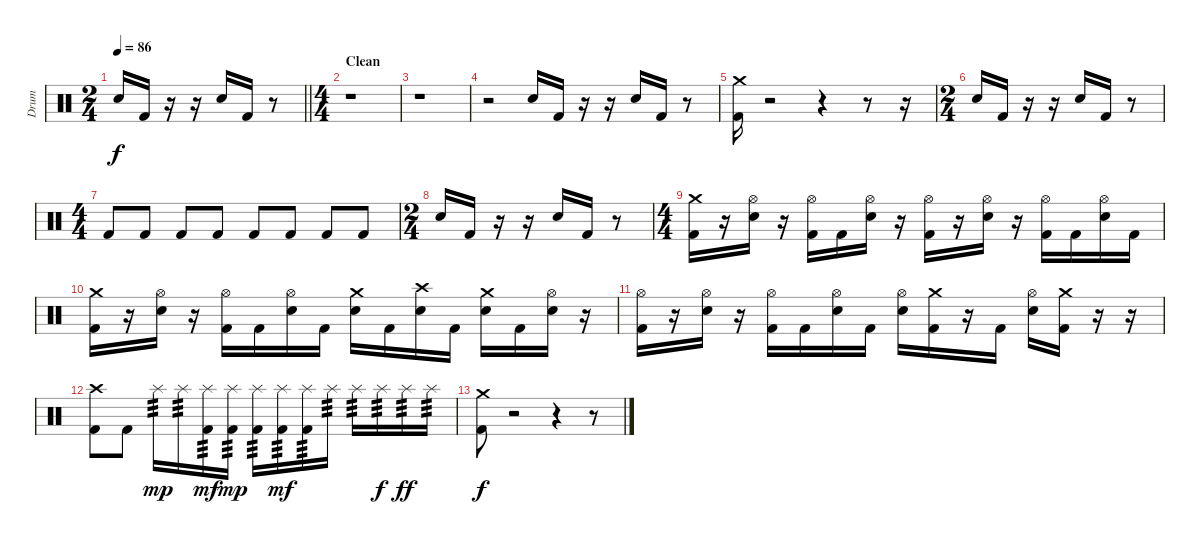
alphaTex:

\track ("Drum" "Drum") {instrument percussion}
\staff {score}
\articulation defaults
\ts (2 4)
\tempo 86
\clef neutral
\barLineRight lightlight
\ks c "Electric Snare (hit)".16{dy f} "Kick (hit) 2".16
r.16 r.16 "Electric Snare (hit)".16 "Kick (hit) 2".16 r.8 |
\ts (4 4)
\section ("" "Clean")
r.1 |
r.1 |
r.2 "Electric Snare (hit)".16 "Kick (hit) 2".16 r.16 r.16 "Electric Snare (hit)".16 "Kick (hit) 2".16 r.8 |
("Crash medium (hit)" "Kick (hit) 2").16 r.2 r.4 r.8 r.16 |
\ts (2 4)
"Electric Snare (hit)".16 "Kick (hit) 2".16 r.16 r.16 "Electric Snare (hit)".16 "Kick (hit) 2".16 r.8 |
\ts (4 4)
"Kick (hit) 2".8 "Kick (hit) 2".8 "Kick (hit) 2".8 "Kick (hit) 2".8 "Kick (hit) 2".8 "Kick (hit) 2".8 "Kick (hit) 2".8 "Kick (hit) 2".8 |
\ts (2 4)
"Electric Snare (hit)".16 "Kick (hit) 2".16 r.16 r.16 "Electric Snare (hit)".16 "Kick (hit) 2".16 r.8 |
\ts (4 4)
("Crash medium (hit)" "Kick (hit) 2").16 r.16 ("Hi-Hat (open)" "Electric Snare (hit)").16 r.16 ("Hi-Hat (open)" "Kick (hit) 2").16 "Kick (hit) 2".16 ("Hi-Hat (open)" "Electric Snare (hit)").16 r.16 ("Hi-Hat (open)" "Kick (hit) 2").16 r.16 ("Hi-Hat (open)" "Electric Snare (hit)").16 r.16 ("Hi-Hat (open)" "Kick (hit) 2").16 "Kick (hit) 2".16 ("Hi-Hat (open)" "Electric Snare (hit)").16 "Kick (hit) 2".16 |
("Crash medium (hit)" "Kick (hit) 2").16 r.16 ("Hi-Hat (open)" "Electric Snare (hit)").16 r.16 ("Hi-Hat (open)" "Kick (hit) 2").16 "Kick (hit) 2".16 ("Hi-Hat (open)" "Electric Snare (hit)").16 "Kick (hit) 2".16 ("Crash medium (hit)" "Electric Snare (hit)").16 "Kick (hit) 2".16 ("Crash high (hit)" "Electric Snare (hit)").16 "Kick (hit) 2".16 ("Crash medium (hit)" "Electric Snare (hit)").16 "Kick (hit) 2".16 ("Hi-Hat (open)" "Electric Snare (hit)").16 r.16 |
("Hi-Hat (open)" "Kick (hit) 2").16 r.16 ("Hi-Hat (open)" "Electric Snare (hit)").16 r.16 ("Hi-Hat (open)" "Kick (hit) 2").16 "Kick (hit) 2".16 ("Hi-Hat (open)" "Electric Snare (hit)").16 "Kick (hit) 2".16 ("Hi-Hat (open)" "Electric Snare (hit)").16 ("Crash medium (hit)" "Kick (hit) 2").16 r.16 "Kick (hit) 2".16 ("Hi-Hat (open)" "Electric Snare (hit)").16 ("Crash medium (hit)" "Kick (hit) 2").16 r.16 r.16 |
("Crash high (hit)" "Kick (hit) 2").8 "Kick (hit) 2".8 "Splash (hit)".16{tp 3 dy mp} "Splash (hit)".16{tp 3} ("Splash (hit)" "Kick (hit) 2").16{tp 3 dy mf} ("Splash (hit)" "Kick (hit) 2").16{tp 3 dy mp} ("Splash (hit)" "Kick (hit) 2").16{tp 3} ("Splash (hit)" "Kick (hit) 2").16{tp 3 dy mf} ("Splash (hit)" "Kick (hit) 2").16{tp 3} "Splash (hit)".16{tp 3} "Splash (hit)".16{tp 3} "Splash (hit)".16{tp 3 dy f} "Splash (hit)".16{tp 3 dy ff} "Splash (hit)".16{tp 3} |
("Crash medium (hit)" "Kick (hit) 2").8{dy f} r.2 r.4 r.8
